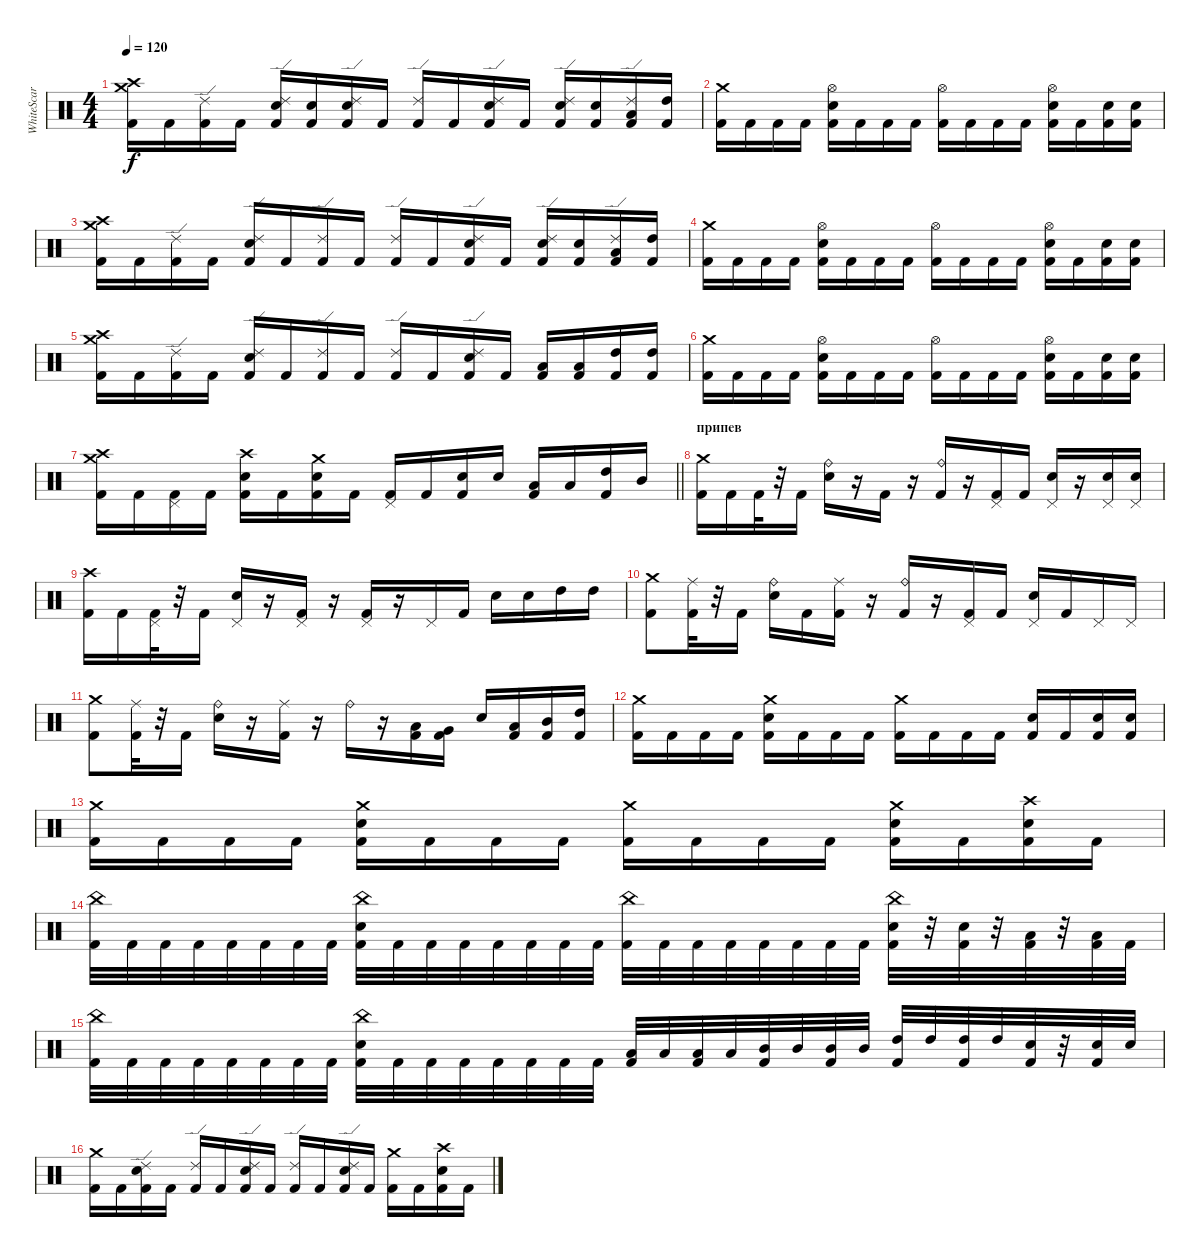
\track ("WhiteScar" "WhiteScar") {instrument percussion}
\staff {score}
\articulation defaults
\ts (4 4)
\tempo 120
\clef neutral
\ks c
("Crash high (hit)" "Crash medium (hit)" "Kick (hit) 2").16{dy f} "Kick (hit) 2".16 ("Ride (edge) 2" "Kick (hit) 2").16 "Kick (hit) 2".16 ("Snare (hit) 2" "Ride (edge) 2" "Kick (hit) 2").16 ("Snare (hit) 2" "Kick (hit) 2").16 ("Snare (hit) 2" "Ride (edge) 2" "Kick (hit) 2").16 "Kick (hit) 2".16 ("Ride (edge) 2" "Kick (hit) 2").16 "Kick (hit) 2".16 ("Snare (hit) 2" "Ride (edge) 2" "Kick (hit) 2").16 "Kick (hit) 2".16 ("Snare (hit) 2" "Ride (edge) 2" "Kick (hit) 2").16 ("Snare (hit) 2" "Kick (hit) 2").16 ("Low Tom (hit)" "Ride (edge) 2" "Kick (hit) 2").16 ("High Tom (hit)" "Kick (hit) 2").16 |
("Crash medium (hit)" "Kick (hit) 2").16 "Kick (hit) 2".16 "Kick (hit) 2".16 "Kick (hit) 2".16 ("Snare (hit) 2" "Hi-Hat (open)" "Kick (hit) 2").16 "Kick (hit) 2".16 "Kick (hit) 2".16 "Kick (hit) 2".16 ("Hi-Hat (open)" "Kick (hit) 2").16 "Kick (hit) 2".16 "Kick (hit) 2".16 "Kick (hit) 2".16 ("Snare (hit) 2" "Hi-Hat (open)" "Kick (hit) 2").16 "Kick (hit) 2".16 ("Snare (hit) 2" "Kick (hit) 2").16 ("Snare (hit) 2" "Kick (hit) 2").16 |
("Crash high (hit)" "Crash medium (hit)" "Kick (hit) 2").16 "Kick (hit) 2".16 ("Ride (edge) 2" "Kick (hit) 2").16 "Kick (hit) 2".16 ("Snare (hit) 2" "Ride (edge) 2" "Kick (hit) 2").16 "Kick (hit) 2".16 ("Ride (edge) 2" "Kick (hit) 2").16 "Kick (hit) 2".16 ("Ride (edge) 2" "Kick (hit) 2").16 "Kick (hit) 2".16 ("Snare (hit) 2" "Ride (edge) 2" "Kick (hit) 2").16 "Kick (hit) 2".16 ("Snare (hit) 2" "Ride (edge) 2" "Kick (hit) 2").16 ("Snare (hit) 2" "Kick (hit) 2").16 ("Low Tom (hit)" "Ride (edge) 2" "Kick (hit) 2").16 ("High Tom (hit)" "Kick (hit) 2").16 |
("Crash medium (hit)" "Kick (hit) 2").16 "Kick (hit) 2".16 "Kick (hit) 2".16 "Kick (hit) 2".16 ("Snare (hit) 2" "Hi-Hat (open)" "Kick (hit) 2").16 "Kick (hit) 2".16 "Kick (hit) 2".16 "Kick (hit) 2".16 ("Hi-Hat (open)" "Kick (hit) 2").16 "Kick (hit) 2".16 "Kick (hit) 2".16 "Kick (hit) 2".16 ("Snare (hit) 2" "Hi-Hat (open)" "Kick (hit) 2").16 "Kick (hit) 2".16 ("Snare (hit) 2" "Kick (hit) 2").16 ("Snare (hit) 2" "Kick (hit) 2").16 |
("Crash high (hit)" "Crash medium (hit)" "Kick (hit) 2").16 "Kick (hit) 2".16 ("Ride (edge) 2" "Kick (hit) 2").16 "Kick (hit) 2".16 ("Snare (hit) 2" "Ride (edge) 2" "Kick (hit) 2").16 "Kick (hit) 2".16 ("Ride (edge) 2" "Kick (hit) 2").16 "Kick (hit) 2".16 ("Ride (edge) 2" "Kick (hit) 2").16 "Kick (hit) 2".16 ("Snare (hit) 2" "Ride (edge) 2" "Kick (hit) 2").16 "Kick (hit) 2".16 ("Low Tom (hit)" "Kick (hit) 2").16 ("Low Tom (hit)" "Kick (hit) 2").16 ("High Tom (hit)" "Kick (hit) 2").16 ("High Tom (hit)" "Kick (hit) 2").16 |
("Crash medium (hit)" "Kick (hit) 2").16 "Kick (hit) 2".16 "Kick (hit) 2".16 "Kick (hit) 2".16 ("Snare (hit) 2" "Hi-Hat (open)" "Kick (hit) 2").16 "Kick (hit) 2".16 "Kick (hit) 2".16 "Kick (hit) 2".16 ("Hi-Hat (open)" "Kick (hit) 2").16 "Kick (hit) 2".16 "Kick (hit) 2".16 "Kick (hit) 2".16 ("Snare (hit) 2" "Hi-Hat (open)" "Kick (hit) 2").16 "Kick (hit) 2".16 ("Snare (hit) 2" "Kick (hit) 2").16 ("Snare (hit) 2" "Kick (hit) 2").16 |
\barLineRight lightlight
("Crash high (hit)" "Crash medium (hit)" "Kick (hit) 2").16 "Kick (hit) 2".16 ("Pedal Hi-Hat (hit)" "Kick (hit) 2").16 "Kick (hit) 2".16 ("Crash high (hit)" "Snare (hit) 2" "Kick (hit) 2").16 "Kick (hit) 2".16 ("Crash medium (hit)" "Snare (hit) 2" "Kick (hit) 2").16 "Kick (hit) 2".16 ("Pedal Hi-Hat (hit)" "Kick (hit) 2").16 "Kick (hit) 2".16 ("Snare (hit) 2" "Kick (hit) 2").16 "Snare (hit) 2".16 ("Low Tom (hit)" "Kick (hit) 2").16 "Low Tom (hit)".16 ("High Tom (hit)" "Kick (hit) 2").16 "Mid Tom (hit)".16 |
\section ("" "припев")
("Crash medium (hit)" "Kick (hit) 2").16 "Kick (hit) 2".16 "Kick (hit) 2".32 r.32 "Kick (hit) 2".16 ("Ride (bell)" "Snare (hit) 2").16 r.16 "Kick (hit) 2".16 r.16 ("Ride (bell)" "Kick (hit) 2").16 r.16 ("Pedal Hi-Hat (hit)" "Kick (hit) 2").16 "Kick (hit) 2".16 ("Pedal Hi-Hat (hit)" "Snare (hit) 2").16 r.16 ("Pedal Hi-Hat (hit)" "Snare (hit) 2").16 ("Pedal Hi-Hat (hit)" "Snare (hit) 2").16 |
("Crash high (hit)" "Kick (hit) 2").16 "Kick (hit) 2".16 ("Pedal Hi-Hat (hit)" "Kick (hit) 2").32 r.32 "Kick (hit) 2".16 ("Pedal Hi-Hat (hit)" "Snare (hit) 2").16 r.16 ("Pedal Hi-Hat (hit)" "Kick (hit) 2").16 r.16 ("Pedal Hi-Hat (hit)" "Kick (hit) 2").16 r.16 "Pedal Hi-Hat (hit)".16 "Kick (hit) 2".16 "Snare (hit) 2".16 "Snare (hit) 2".16 "High Tom (hit)".16 "High Tom (hit)".16 |
("Crash medium (hit)" "Kick (hit) 2").8 ("Ride (middle)" "Kick (hit) 2").32 r.32 "Kick (hit) 2".16 ("Ride (bell)" "Snare (hit) 2").16 "Kick (hit) 2".16 ("Ride (middle)" "Kick (hit) 2").16 r.16 ("Ride (bell)" "Kick (hit) 2").16 r.16 ("Pedal Hi-Hat (hit)" "Kick (hit) 2").16 "Kick (hit) 2".16 ("Pedal Hi-Hat (hit)" "Snare (hit) 2").16 "Kick (hit) 2".16 "Pedal Hi-Hat (hit)".16 "Pedal Hi-Hat (hit)".16 |
("Crash medium (hit)" "Kick (hit) 2").8 ("Ride (middle)" "Kick (hit) 2").32 r.32 "Kick (hit) 2".16 ("Ride (bell)" "Snare (hit) 2").16 r.16 ("Ride (middle)" "Kick (hit) 2").16 r.16 "Ride (bell)".16 r.16 ("Low Floor Tom (hit)" "Kick (hit) 2").16 ("Very Low Tom (hit)" "Kick (hit) 2").16 "Snare (hit) 2".16 ("Low Tom (hit)" "Kick (hit) 2").16 ("Mid Tom (hit)" "Kick (hit) 2").16 ("High Tom (hit)" "Kick (hit) 2").16 |
("Crash medium (hit)" "Kick (hit) 2").16 "Kick (hit) 2".16 "Kick (hit) 2".16 "Kick (hit) 2".16 ("Crash medium (hit)" "Snare (hit) 2" "Kick (hit) 2").16 "Kick (hit) 2".16 "Kick (hit) 2".16 "Kick (hit) 2".16 ("Crash medium (hit)" "Kick (hit) 2").16 "Kick (hit) 2".16 "Kick (hit) 2".16 "Kick (hit) 2".16 ("Snare (hit) 2" "Kick (hit) 2").16 "Kick (hit) 2".16 ("Snare (hit) 2" "Kick (hit) 2").16 ("Snare (hit) 2" "Kick (hit) 2").16 |
("Crash medium (hit)" "Kick (hit) 2").16 "Kick (hit) 2".16 "Kick (hit) 2".16 "Kick (hit) 2".16 ("Crash medium (hit)" "Snare (hit) 2" "Kick (hit) 2").16 "Kick (hit) 2".16 "Kick (hit) 2".16 "Kick (hit) 2".16 ("Crash medium (hit)" "Kick (hit) 2").16 "Kick (hit) 2".16 "Kick (hit) 2".16 "Kick (hit) 2".16 ("Crash medium (hit)" "Snare (hit) 2" "Kick (hit) 2").16 "Kick (hit) 2".16 ("Crash high (hit)" "Snare (hit) 2" "Kick (hit) 2").16 "Kick (hit) 2".16 |
("China (hit)" "Kick (hit) 2").32 "Kick (hit) 2".32 "Kick (hit) 2".32 "Kick (hit) 2".32 "Kick (hit) 2".32 "Kick (hit) 2".32 "Kick (hit) 2".32 "Kick (hit) 2".32 ("China (hit)" "Snare (hit) 2" "Kick (hit) 2").32 "Kick (hit) 2".32 "Kick (hit) 2".32 "Kick (hit) 2".32 "Kick (hit) 2".32 "Kick (hit) 2".32 "Kick (hit) 2".32 "Kick (hit) 2".32 ("China (hit)" "Kick (hit) 2").32 "Kick (hit) 2".32 "Kick (hit) 2".32 "Kick (hit) 2".32 "Kick (hit) 2".32 "Kick (hit) 2".32 "Kick (hit) 2".32 "Kick (hit) 2".32 ("China (hit)" "Snare (hit) 2" "Kick (hit) 2").32 r.32 ("Snare (hit) 2" "Kick (hit) 2").32 r.32 ("Low Tom (hit)" "Kick (hit) 2").32 r.32 ("Low Tom (hit)" "Kick (hit) 2").32 "Kick (hit) 2".32 |
("China (hit)" "Kick (hit) 2").32 "Kick (hit) 2".32 "Kick (hit) 2".32 "Kick (hit) 2".32 "Kick (hit) 2".32 "Kick (hit) 2".32 "Kick (hit) 2".32 "Kick (hit) 2".32 ("China (hit)" "Snare (hit) 2" "Kick (hit) 2").32 "Kick (hit) 2".32 "Kick (hit) 2".32 "Kick (hit) 2".32 "Kick (hit) 2".32 "Kick (hit) 2".32 "Kick (hit) 2".32 "Kick (hit) 2".32 ("Low Tom (hit)" "Kick (hit) 2").32 "Low Tom (hit)".32 ("Low Tom (hit)" "Kick (hit) 2").32 "Low Tom (hit)".32 ("Mid Tom (hit)" "Kick (hit) 2").32 "Mid Tom (hit)".32 ("Mid Tom (hit)" "Kick (hit) 2").32 "Mid Tom (hit)".32 ("High Tom (hit)" "Kick (hit) 2").32 "High Tom (hit)".32 ("High Tom (hit)" "Kick (hit) 2").32 "High Tom (hit)".32 ("Snare (hit) 2" "Kick (hit) 2").32 r.32 ("Snare (hit) 2" "Kick (hit) 2").32 "Snare (hit) 2".32 |
("Crash medium (hit)" "Kick (hit) 2").16 "Kick (hit) 2".16 ("Snare (hit) 2" "Ride (edge) 2" "Kick (hit) 2").16 "Kick (hit) 2".16 ("Ride (edge) 2" "Kick (hit) 2").16 "Kick (hit) 2".16 ("Snare (hit) 2" "Ride (edge) 2" "Kick (hit) 2").16 "Kick (hit) 2".16 ("Ride (edge) 2" "Kick (hit) 2").16 "Kick (hit) 2".16 ("Snare (hit) 2" "Ride (edge) 2" "Kick (hit) 2").16 "Kick (hit) 2".16 ("Crash medium (hit)" "Kick (hit) 2").16 "Kick (hit) 2".16 ("Snare (hit) 2" "Crash high (hit)" "Kick (hit) 2").16 "Kick (hit) 2".16
